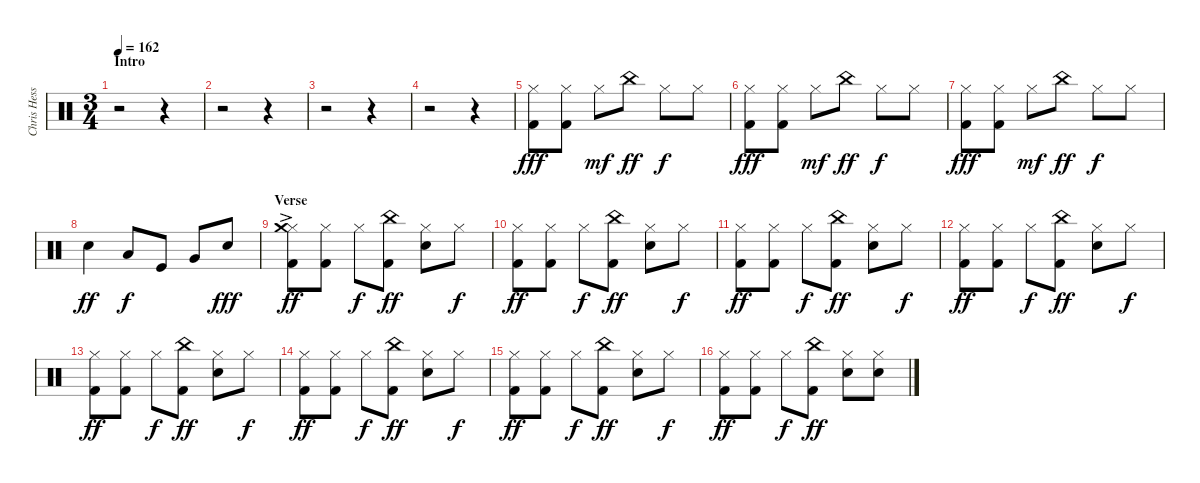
\track ("Chris Hesse" "Chris Hess") {instrument percussion}
\staff {score}
\articulation defaults
\ts (3 4)
\section ("" "Intro")
\tempo 162
\clef neutral
\ks c
r.2{dy fff} r.4 |
r.2 r.4 |
r.2 r.4 |
r.2 r.4 |
("Hi-Hat (closed)" "Kick (hit) 2").8 ("Hi-Hat (closed)" "Kick (hit) 2").8 "Hi-Hat (closed)".8{dy mf} "China (hit)".8{dy ff} "Hi-Hat (closed)".8{dy f} "Hi-Hat (closed)".8 |
("Hi-Hat (closed)" "Kick (hit) 2").8{dy fff} ("Hi-Hat (closed)" "Kick (hit) 2").8 "Hi-Hat (closed)".8{dy mf} "China (hit)".8{dy ff} "Hi-Hat (closed)".8{dy f} "Hi-Hat (closed)".8 |
("Hi-Hat (closed)" "Kick (hit) 2").8{dy fff} ("Hi-Hat (closed)" "Kick (hit) 2").8 "Hi-Hat (closed)".8{dy mf} "China (hit)".8{dy ff} "Hi-Hat (closed)".8{dy f} "Hi-Hat (closed)".8 |
"Snare (hit) 2".4{dy ff} "Low Tom (hit)".8{dy f} "Kick (hit)".8 "Very Low Tom (hit)".8 "Snare (hit) 2".8{dy fff} |
\section ("" "Verse")
("Hi-Hat (closed)" "Crash medium (hit)"{ac} "Kick (hit) 2").8{dy ff} ("Hi-Hat (closed)" "Kick (hit) 2").8 "Hi-Hat (closed)".8{dy f} ("China (hit)" "Kick (hit) 2").8{dy ff} ("Hi-Hat (closed)" "Snare (hit) 2").8 "Hi-Hat (closed)".8{dy f} |
("Hi-Hat (closed)" "Kick (hit) 2").8{dy ff} ("Hi-Hat (closed)" "Kick (hit) 2").8 "Hi-Hat (closed)".8{dy f} ("China (hit)" "Kick (hit) 2").8{dy ff} ("Hi-Hat (closed)" "Snare (hit) 2").8 "Hi-Hat (closed)".8{dy f} |
("Hi-Hat (closed)" "Kick (hit) 2").8{dy ff} ("Hi-Hat (closed)" "Kick (hit) 2").8 "Hi-Hat (closed)".8{dy f} ("China (hit)" "Kick (hit) 2").8{dy ff} ("Hi-Hat (closed)" "Snare (hit) 2").8 "Hi-Hat (closed)".8{dy f} |
("Hi-Hat (closed)" "Kick (hit) 2").8{dy ff} ("Hi-Hat (closed)" "Kick (hit) 2").8 "Hi-Hat (closed)".8{dy f} ("China (hit)" "Kick (hit) 2").8{dy ff} ("Hi-Hat (closed)" "Snare (hit) 2").8 "Hi-Hat (closed)".8{dy f} |
("Hi-Hat (closed)" "Kick (hit) 2").8{dy ff} ("Hi-Hat (closed)" "Kick (hit) 2").8 "Hi-Hat (closed)".8{dy f} ("China (hit)" "Kick (hit) 2").8{dy ff} ("Hi-Hat (closed)" "Snare (hit) 2").8 "Hi-Hat (closed)".8{dy f} |
("Hi-Hat (closed)" "Kick (hit) 2").8{dy ff} ("Hi-Hat (closed)" "Kick (hit) 2").8 "Hi-Hat (closed)".8{dy f} ("China (hit)" "Kick (hit) 2").8{dy ff} ("Hi-Hat (closed)" "Snare (hit) 2").8 "Hi-Hat (closed)".8{dy f} |
("Hi-Hat (closed)" "Kick (hit) 2").8{dy ff} ("Hi-Hat (closed)" "Kick (hit) 2").8 "Hi-Hat (closed)".8{dy f} ("China (hit)" "Kick (hit) 2").8{dy ff} ("Hi-Hat (closed)" "Snare (hit) 2").8 "Hi-Hat (closed)".8{dy f} |
("Hi-Hat (closed)" "Kick (hit) 2").8{dy ff} ("Hi-Hat (closed)" "Kick (hit) 2").8 "Hi-Hat (closed)".8{dy f} ("China (hit)" "Kick (hit) 2").8{dy ff} ("Hi-Hat (closed)" "Snare (hit) 2").8 ("Hi-Hat (closed)" "Snare (hit) 2").8
